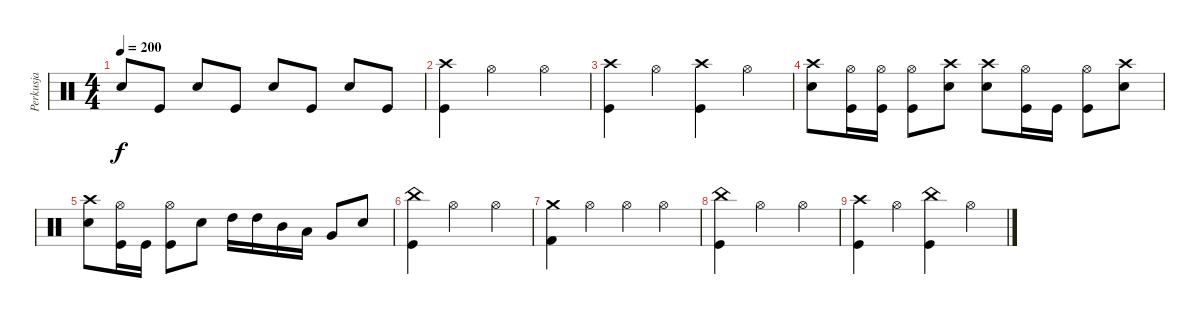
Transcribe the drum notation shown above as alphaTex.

\track ("Perkusja" "Perkusja") {instrument percussion}
\staff {score}
\articulation defaults
\ts (4 4)
\tempo 200
\clef neutral
\ks c "Electric Snare (hit)".8{dy f} "Kick (hit)".8 "Electric Snare (hit)".8 "Kick (hit)".8 "Electric Snare (hit)".8 "Kick (hit)".8 "Electric Snare (hit)".8 "Kick (hit)".8
|
("Crash high (hit)" "Kick (hit)").4 "Hi-Hat (open)".2 "Hi-Hat (open)".4 |
("Crash high (hit)" "Kick (hit)").4 "Hi-Hat (open)".4 ("Crash high (hit)" "Kick (hit)").4 "Hi-Hat (open)".4 |
("Crash high (hit)" "Electric Snare (hit)").8 ("Hi-Hat (open)" "Kick (hit)").16 ("Hi-Hat (open)" "Kick (hit)").16 ("Hi-Hat (open)" "Kick (hit)").8 ("Crash high (hit)" "Electric Snare (hit)").8 ("Crash high (hit)" "Electric Snare (hit)").8 ("Hi-Hat (open)" "Kick (hit)").16 "Kick (hit)".16 ("Hi-Hat (open)" "Kick (hit)").8 ("Crash high (hit)" "Electric Snare (hit)").8 |
("Crash high (hit)" "Electric Snare (hit)").8 ("Hi-Hat (open)" "Kick (hit)").16 "Kick (hit)".16 ("Hi-Hat (open)" "Kick (hit)").8 "Electric Snare (hit)".8 "High Tom (hit)".16 "High Tom (hit)".16 "Mid Tom (hit)".16 "Low Tom (hit)".16 "Very Low Tom (hit)".8 "Electric Snare (hit)".8 |
("China (hit)" "Kick (hit)").4 "Hi-Hat (open)".2 "Hi-Hat (open)".4 |
("Crash medium (hit)" "Kick (hit) 2").4 "Hi-Hat (open)".4 "Hi-Hat (open)".4 "Hi-Hat (open)".4 |
("China (hit)" "Kick (hit)").4 "Hi-Hat (open)".2 "Hi-Hat (open)".4 |
("Crash high (hit)" "Kick (hit)").4 "Hi-Hat (open)".4 ("China (hit)" "Kick (hit)").4 "Hi-Hat (open)".4
